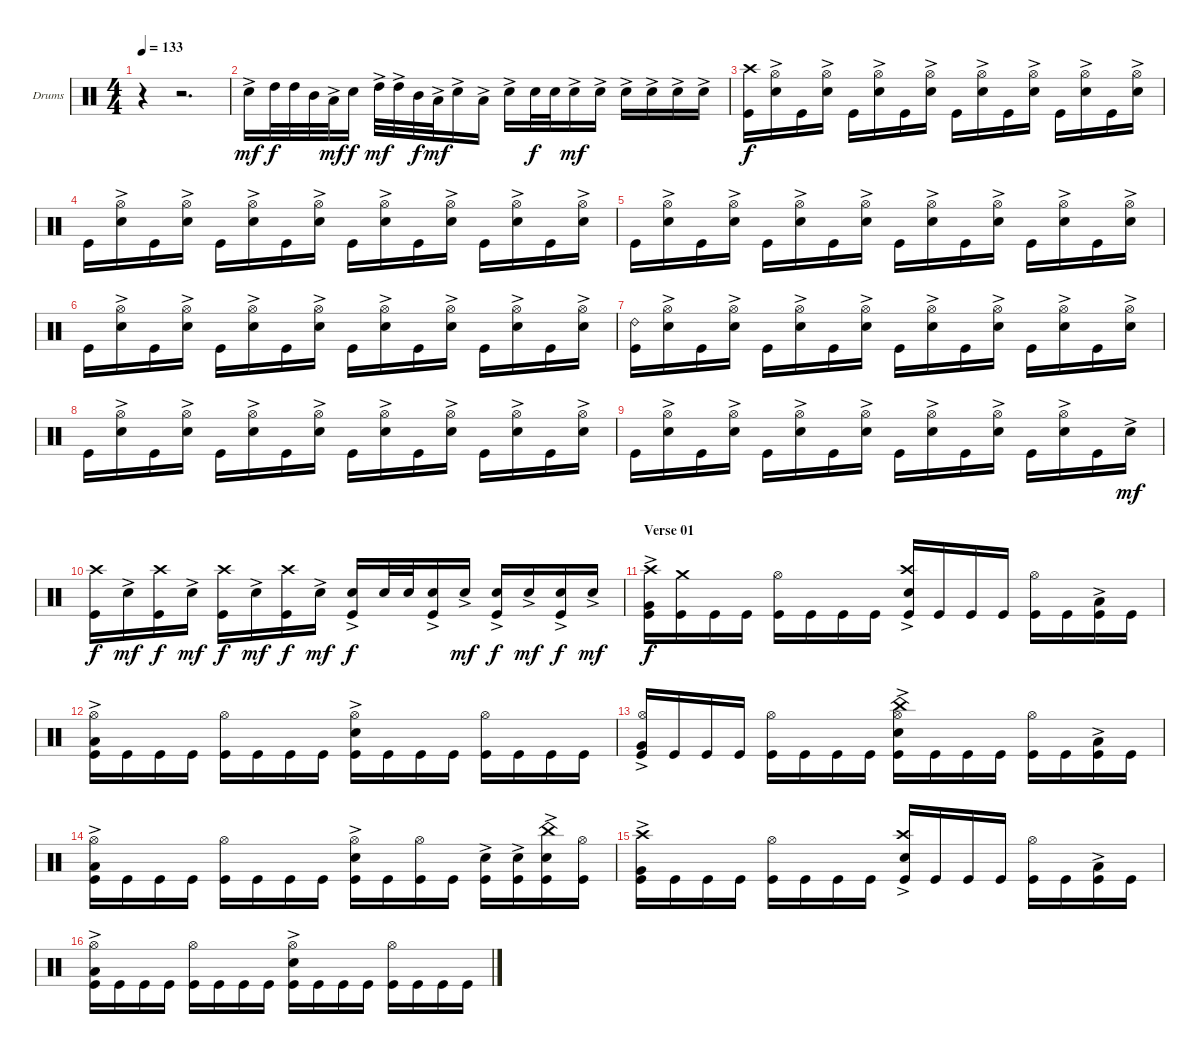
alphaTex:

\bracketExtendMode groupsimilarinstruments
\firstSystemTrackNameOrientation horizontal
\otherSystemsTrackNameOrientation horizontal
\track ("Drumkit" "Drums") {instrument percussion}
\staff {score}
\articulation defaults
\ts (4 4)
\beaming (8 2 2 2 2)
\tempo 133
\clef neutral
\ks c
r.4{dy mf} r.2{d} |
"Snare (hit) 2"{ac}.16 "High Tom (hit)".32{dy f} "High Tom (hit)".32 "Mid Tom (hit)".32 "Low Tom (hit)"{ac}.32{dy mf} "Snare (hit) 2".16{dy f} "High Tom (hit)"{ac}.32{dy mf} "High Tom (hit)"{ac}.32 "Mid Tom (hit)".32{dy f} "Low Tom (hit)"{ac}.32{dy mf} "Snare (hit) 2"{ac}.16 "Low Tom (hit)"{ac}.16 "Snare (hit) 2"{ac}.16 "Snare (hit) 2".32{dy f} "Snare (hit) 2".32 "Snare (hit) 2"{ac}.16{dy mf} "Snare (hit) 2"{ac}.16 "Snare (hit) 2"{ac}.16 "Snare (hit) 2"{ac}.16 "Snare (hit) 2"{ac}.16 "Snare (hit) 2"{ac}.16 |
("Crash high (hit)" "Kick (hit)").16{dy f} ("Snare (hit) 2"{ac} "Hi-Hat (open)").16 "Kick (hit)".16 ("Snare (hit) 2"{ac} "Hi-Hat (open)").16 "Kick (hit)".16 ("Snare (hit) 2"{ac} "Hi-Hat (open)").16 "Kick (hit)".16 ("Snare (hit) 2"{ac} "Hi-Hat (open)").16 "Kick (hit)".16 ("Snare (hit) 2"{ac} "Hi-Hat (open)").16 "Kick (hit)".16 ("Snare (hit) 2"{ac} "Hi-Hat (open)").16 "Kick (hit)".16 ("Snare (hit) 2"{ac} "Hi-Hat (open)").16 "Kick (hit)".16 ("Snare (hit) 2"{ac} "Hi-Hat (open)").16 |
"Kick (hit)".16 ("Snare (hit) 2"{ac} "Hi-Hat (open)").16 "Kick (hit)".16 ("Snare (hit) 2"{ac} "Hi-Hat (open)").16 "Kick (hit)".16 ("Snare (hit) 2"{ac} "Hi-Hat (open)").16 "Kick (hit)".16 ("Snare (hit) 2"{ac} "Hi-Hat (open)").16 "Kick (hit)".16 ("Snare (hit) 2"{ac} "Hi-Hat (open)").16 "Kick (hit)".16 ("Snare (hit) 2"{ac} "Hi-Hat (open)").16 "Kick (hit)".16 ("Snare (hit) 2"{ac} "Hi-Hat (open)").16 "Kick (hit)".16 ("Snare (hit) 2"{ac} "Hi-Hat (open)").16 |
"Kick (hit)".16 ("Snare (hit) 2"{ac} "Hi-Hat (open)").16 "Kick (hit)".16 ("Snare (hit) 2"{ac} "Hi-Hat (open)").16 "Kick (hit)".16 ("Snare (hit) 2"{ac} "Hi-Hat (open)").16 "Kick (hit)".16 ("Snare (hit) 2"{ac} "Hi-Hat (open)").16 "Kick (hit)".16 ("Snare (hit) 2"{ac} "Hi-Hat (open)").16 "Kick (hit)".16 ("Snare (hit) 2"{ac} "Hi-Hat (open)").16 "Kick (hit)".16 ("Snare (hit) 2"{ac} "Hi-Hat (open)").16 "Kick (hit)".16 ("Snare (hit) 2"{ac} "Hi-Hat (open)").16 |
"Kick (hit)".16 ("Snare (hit) 2"{ac} "Hi-Hat (open)").16 "Kick (hit)".16 ("Snare (hit) 2"{ac} "Hi-Hat (open)").16 "Kick (hit)".16 ("Snare (hit) 2"{ac} "Hi-Hat (open)").16 "Kick (hit)".16 ("Snare (hit) 2"{ac} "Hi-Hat (open)").16 "Kick (hit)".16 ("Snare (hit) 2"{ac} "Hi-Hat (open)").16 "Kick (hit)".16 ("Snare (hit) 2"{ac} "Hi-Hat (open)").16 "Kick (hit)".16 ("Snare (hit) 2"{ac} "Hi-Hat (open)").16 "Kick (hit)".16 ("Snare (hit) 2"{ac} "Hi-Hat (open)").16 |
("Kick (hit)" "Ride (bell) 2").16 ("Snare (hit) 2"{ac} "Hi-Hat (open)").16 "Kick (hit)".16 ("Snare (hit) 2"{ac} "Hi-Hat (open)").16 "Kick (hit)".16 ("Snare (hit) 2"{ac} "Hi-Hat (open)").16 "Kick (hit)".16 ("Snare (hit) 2"{ac} "Hi-Hat (open)").16 "Kick (hit)".16 ("Snare (hit) 2"{ac} "Hi-Hat (open)").16 "Kick (hit)".16 ("Snare (hit) 2"{ac} "Hi-Hat (open)").16 "Kick (hit)".16 ("Snare (hit) 2"{ac} "Hi-Hat (open)").16 "Kick (hit)".16 ("Snare (hit) 2"{ac} "Hi-Hat (open)").16 |
"Kick (hit)".16 ("Snare (hit) 2"{ac} "Hi-Hat (open)").16 "Kick (hit)".16 ("Snare (hit) 2"{ac} "Hi-Hat (open)").16 "Kick (hit)".16 ("Snare (hit) 2"{ac} "Hi-Hat (open)").16 "Kick (hit)".16 ("Snare (hit) 2"{ac} "Hi-Hat (open)").16 "Kick (hit)".16 ("Snare (hit) 2"{ac} "Hi-Hat (open)").16 "Kick (hit)".16 ("Snare (hit) 2"{ac} "Hi-Hat (open)").16 "Kick (hit)".16 ("Snare (hit) 2"{ac} "Hi-Hat (open)").16 "Kick (hit)".16 ("Snare (hit) 2"{ac} "Hi-Hat (open)").16 |
"Kick (hit)".16 ("Snare (hit) 2"{ac} "Hi-Hat (open)").16 "Kick (hit)".16 ("Snare (hit) 2"{ac} "Hi-Hat (open)").16 "Kick (hit)".16 ("Snare (hit) 2"{ac} "Hi-Hat (open)").16 "Kick (hit)".16 ("Snare (hit) 2"{ac} "Hi-Hat (open)").16 "Kick (hit)".16 ("Snare (hit) 2"{ac} "Hi-Hat (open)").16 "Kick (hit)".16 ("Snare (hit) 2"{ac} "Hi-Hat (open)").16 "Kick (hit)".16 ("Snare (hit) 2"{ac} "Hi-Hat (open)").16 "Kick (hit)".16 "Snare (hit) 2"{ac}.16{dy mf} |
("Kick (hit)" "Crash high (hit)").16{dy f} "Snare (hit) 2"{ac}.16{dy mf} ("Kick (hit)" "Crash high (hit)").16{dy f} "Snare (hit) 2"{ac}.16{dy mf} ("Kick (hit)" "Crash high (hit)").16{dy f} "Snare (hit) 2"{ac}.16{dy mf} ("Kick (hit)" "Crash high (hit)").16{dy f} "Snare (hit) 2"{ac}.16{dy mf} ("Kick (hit)" "Snare (hit) 2"{ac}).16{dy f} "Snare (hit) 2".32 "Snare (hit) 2".32 ("Kick (hit)" "Snare (hit) 2"{ac}).16 "Snare (hit) 2"{ac}.16{dy mf} ("Kick (hit)" "Snare (hit) 2"{ac}).16{dy f} "Snare (hit) 2"{ac}.16{dy mf} ("Kick (hit)" "Snare (hit) 2"{ac}).16{dy f} "Snare (hit) 2"{ac}.16{dy mf} |
\section ("" "Verse 01")
("Kick (hit)" "Crash high (hit)" "Very Low Tom (hit)"{ac}).16{dy f} ("Kick (hit)" "Crash medium (hit)").16 "Kick (hit)".16 "Kick (hit)".16 ("Kick (hit)" "Hi-Hat (open)").16 "Kick (hit)".16 "Kick (hit)".16 "Kick (hit)".16 ("Kick (hit)" "Snare (hit) 2"{ac} "Crash high (hit)").16 "Kick (hit)".16 "Kick (hit)".16 "Kick (hit)".16 ("Kick (hit)" "Hi-Hat (open)").16 "Kick (hit)".16 ("Kick (hit)" "Low Tom (hit)"{ac}).16 "Kick (hit)".16 |
("Kick (hit)" "Low Tom (hit)"{ac} "Hi-Hat (open)").16 "Kick (hit)".16 "Kick (hit)".16 "Kick (hit)".16 ("Kick (hit)" "Hi-Hat (open)").16 "Kick (hit)".16 "Kick (hit)".16 "Kick (hit)".16 ("Kick (hit)" "Hi-Hat (open)" "Snare (hit) 2"{ac}).16 "Kick (hit)".16 "Kick (hit)".16 "Kick (hit)".16 ("Kick (hit)" "Hi-Hat (open)").16 "Kick (hit)".16 "Kick (hit)".16 "Kick (hit)".16 |
("Kick (hit)" "Very Low Tom (hit)"{ac} "Hi-Hat (open)").16 "Kick (hit)".16 "Kick (hit)".16 "Kick (hit)".16 ("Kick (hit)" "Hi-Hat (open)").16 "Kick (hit)".16 "Kick (hit)".16 "Kick (hit)".16 ("Kick (hit)" "Snare (hit) 2"{ac} "Hi-Hat (open)" "China (hit)").16 "Kick (hit)".16 "Kick (hit)".16 "Kick (hit)".16 ("Kick (hit)" "Hi-Hat (open)").16 "Kick (hit)".16 ("Kick (hit)" "Low Tom (hit)"{ac}).16 "Kick (hit)".16 |
("Kick (hit)" "Low Tom (hit)"{ac} "Hi-Hat (open)").16 "Kick (hit)".16 "Kick (hit)".16 "Kick (hit)".16 ("Kick (hit)" "Hi-Hat (open)").16 "Kick (hit)".16 "Kick (hit)".16 "Kick (hit)".16 ("Kick (hit)" "Snare (hit) 2"{ac} "Hi-Hat (open)").16 "Kick (hit)".16 ("Kick (hit)" "Hi-Hat (open)").16 "Kick (hit)".16 ("Kick (hit)" "Snare (hit) 2"{ac}).16 ("Kick (hit)" "Snare (hit) 2"{ac}).16 ("Kick (hit)" "Snare (hit) 2"{ac} "China (hit)"{ac}).16 ("Kick (hit)" "Hi-Hat (open)").16 |
("Kick (hit)" "Crash high (hit)" "Very Low Tom (hit)"{ac}).16 "Kick (hit)".16 "Kick (hit)".16 "Kick (hit)".16 ("Kick (hit)" "Hi-Hat (open)").16 "Kick (hit)".16 "Kick (hit)".16 "Kick (hit)".16 ("Kick (hit)" "Snare (hit) 2"{ac} "Crash high (hit)").16 "Kick (hit)".16 "Kick (hit)".16 "Kick (hit)".16 ("Kick (hit)" "Hi-Hat (open)").16 "Kick (hit)".16 ("Kick (hit)" "Low Tom (hit)"{ac}).16 "Kick (hit)".16 |
("Kick (hit)" "Low Tom (hit)"{ac} "Hi-Hat (open)").16 "Kick (hit)".16 "Kick (hit)".16 "Kick (hit)".16 ("Kick (hit)" "Hi-Hat (open)").16 "Kick (hit)".16 "Kick (hit)".16 "Kick (hit)".16 ("Kick (hit)" "Hi-Hat (open)" "Snare (hit) 2"{ac}).16 "Kick (hit)".16 "Kick (hit)".16 "Kick (hit)".16 ("Kick (hit)" "Hi-Hat (open)").16 "Kick (hit)".16 "Kick (hit)".16 "Kick (hit)".16
